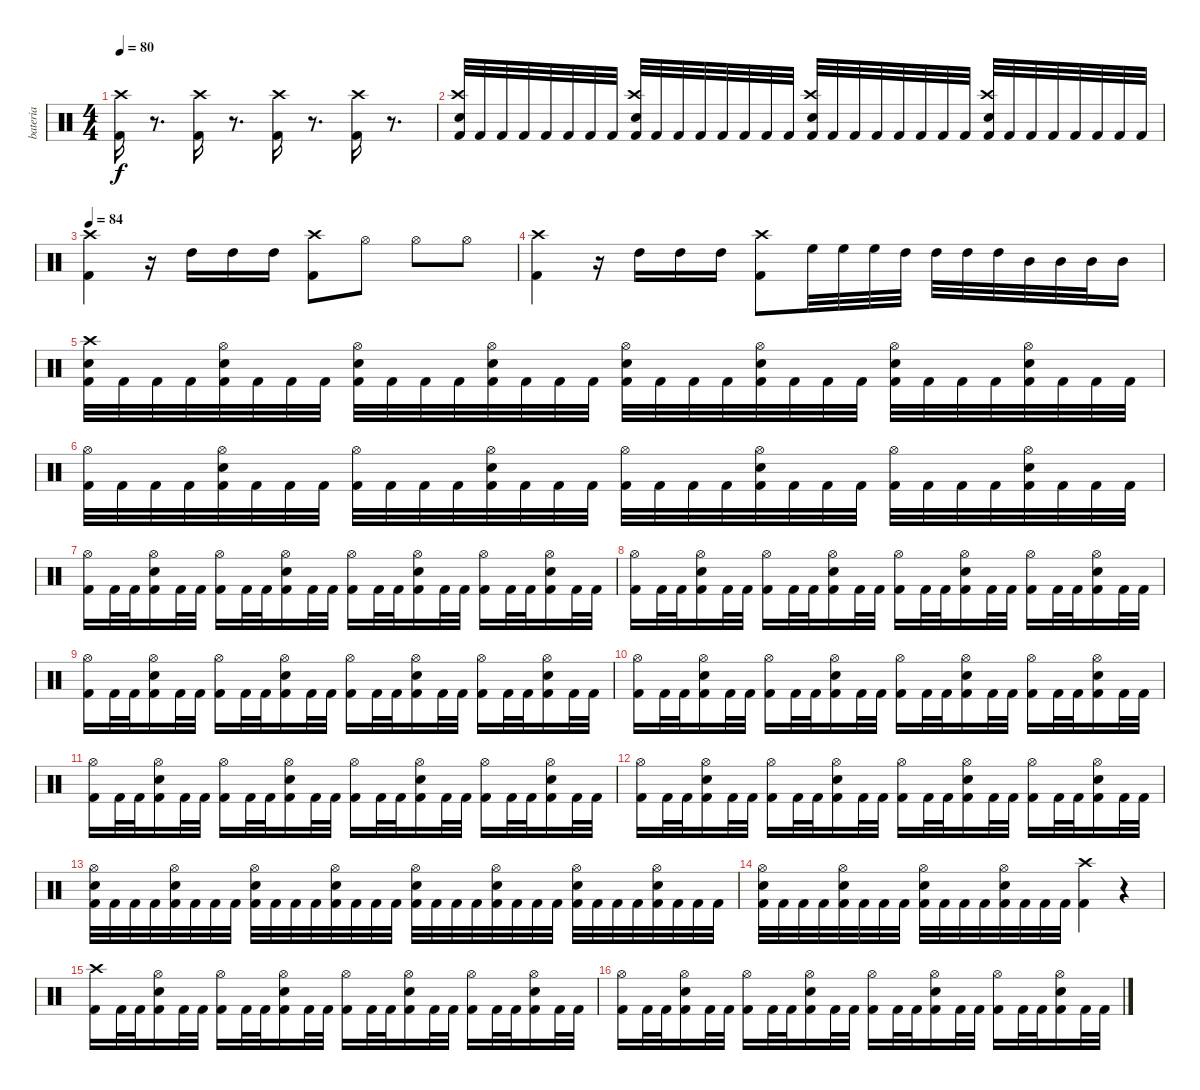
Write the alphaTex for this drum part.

\track ("bateria" "bateria") {instrument percussion}
\staff {score}
\articulation defaults
\ts (4 4)
\tempo 80
\clef neutral
\ks c
("Kick (hit) 2" "Crash high (hit)").16{dy f} r.8{d} ("Kick (hit) 2" "Crash high (hit)").16 r.8{d} ("Kick (hit) 2" "Crash high (hit)").16 r.8{d} ("Kick (hit) 2" "Crash high (hit)").16 r.8{d} |
("Kick (hit) 2" "Electric Snare (hit)" "Crash high (hit)").32 "Kick (hit) 2".32 "Kick (hit) 2".32 "Kick (hit) 2".32 "Kick (hit) 2".32 "Kick (hit) 2".32 "Kick (hit) 2".32 "Kick (hit) 2".32 ("Kick (hit) 2" "Electric Snare (hit)" "Crash high (hit)").32 "Kick (hit) 2".32 "Kick (hit) 2".32 "Kick (hit) 2".32 "Kick (hit) 2".32 "Kick (hit) 2".32 "Kick (hit) 2".32 "Kick (hit) 2".32 ("Kick (hit) 2" "Electric Snare (hit)" "Crash high (hit)").32 "Kick (hit) 2".32 "Kick (hit) 2".32 "Kick (hit) 2".32 "Kick (hit) 2".32 "Kick (hit) 2".32 "Kick (hit) 2".32 "Kick (hit) 2".32 ("Kick (hit) 2" "Electric Snare (hit)" "Crash high (hit)").32 "Kick (hit) 2".32 "Kick (hit) 2".32 "Kick (hit) 2".32 "Kick (hit) 2".32 "Kick (hit) 2".32 "Kick (hit) 2".32 "Kick (hit) 2".32 |
\tempo 84
("Kick (hit) 2" "Crash high (hit)").4 r.16 "High Tom (hit)".16 "High Tom (hit)".16 "High Tom (hit)".16 ("Kick (hit) 2" "Crash high (hit)").8 "Hi-Hat (open)".8 "Hi-Hat (open)".8 "Hi-Hat (open)".8 |
("Kick (hit) 2" "Crash high (hit)").4 r.16 "High Tom (hit)".16 "High Tom (hit)".16 "High Tom (hit)".16 ("Kick (hit) 2" "Crash high (hit)").8 "High Floor Tom (hit)".32 "High Floor Tom (hit)".32 "High Floor Tom (hit)".32 "High Tom (hit)".32 "High Tom (hit)".32 "High Tom (hit)".32 "High Tom (hit)".32 "Mid Tom (hit)".32 "Mid Tom (hit)".32 "Mid Tom (hit)".32 "Mid Tom (hit)".16 |
("Kick (hit) 2" "Electric Snare (hit)" "Crash high (hit)").32 "Kick (hit) 2".32 "Kick (hit) 2".32 "Kick (hit) 2".32 ("Kick (hit) 2" "Electric Snare (hit)" "Hi-Hat (open)").32 "Kick (hit) 2".32 "Kick (hit) 2".32 "Kick (hit) 2".32 ("Kick (hit) 2" "Electric Snare (hit)" "Hi-Hat (open)").32 "Kick (hit) 2".32 "Kick (hit) 2".32 "Kick (hit) 2".32 ("Kick (hit) 2" "Electric Snare (hit)" "Hi-Hat (open)").32 "Kick (hit) 2".32 "Kick (hit) 2".32 "Kick (hit) 2".32 ("Kick (hit) 2" "Electric Snare (hit)" "Hi-Hat (open)").32 "Kick (hit) 2".32 "Kick (hit) 2".32 "Kick (hit) 2".32 ("Kick (hit) 2" "Electric Snare (hit)" "Hi-Hat (open)").32 "Kick (hit) 2".32 "Kick (hit) 2".32 "Kick (hit) 2".32 ("Kick (hit) 2" "Electric Snare (hit)" "Hi-Hat (open)").32 "Kick (hit) 2".32 "Kick (hit) 2".32 "Kick (hit) 2".32 ("Kick (hit) 2" "Electric Snare (hit)" "Hi-Hat (open)").32 "Kick (hit) 2".32 "Kick (hit) 2".32 "Kick (hit) 2".32 |
("Kick (hit) 2" "Hi-Hat (open)").32 "Kick (hit) 2".32 "Kick (hit) 2".32 "Kick (hit) 2".32 ("Kick (hit) 2" "Electric Snare (hit)" "Hi-Hat (open)").32 "Kick (hit) 2".32 "Kick (hit) 2".32 "Kick (hit) 2".32 ("Kick (hit) 2" "Hi-Hat (open)").32 "Kick (hit) 2".32 "Kick (hit) 2".32 "Kick (hit) 2".32 ("Kick (hit) 2" "Electric Snare (hit)" "Hi-Hat (open)").32 "Kick (hit) 2".32 "Kick (hit) 2".32 "Kick (hit) 2".32 ("Kick (hit) 2" "Hi-Hat (open)").32 "Kick (hit) 2".32 "Kick (hit) 2".32 "Kick (hit) 2".32 ("Kick (hit) 2" "Electric Snare (hit)" "Hi-Hat (open)").32 "Kick (hit) 2".32 "Kick (hit) 2".32 "Kick (hit) 2".32 ("Kick (hit) 2" "Hi-Hat (open)").32 "Kick (hit) 2".32 "Kick (hit) 2".32 "Kick (hit) 2".32 ("Kick (hit) 2" "Electric Snare (hit)" "Hi-Hat (open)").32 "Kick (hit) 2".32 "Kick (hit) 2".32 "Kick (hit) 2".32 |
("Kick (hit) 2" "Hi-Hat (open)").16 "Kick (hit) 2".32 "Kick (hit) 2".32 ("Kick (hit) 2" "Electric Snare (hit)" "Hi-Hat (open)").16 "Kick (hit) 2".32 "Kick (hit) 2".32 ("Kick (hit) 2" "Hi-Hat (open)").16 "Kick (hit) 2".32 "Kick (hit) 2".32 ("Kick (hit) 2" "Electric Snare (hit)" "Hi-Hat (open)").16 "Kick (hit) 2".32 "Kick (hit) 2".32 ("Kick (hit) 2" "Hi-Hat (open)").16 "Kick (hit) 2".32 "Kick (hit) 2".32 ("Kick (hit) 2" "Electric Snare (hit)" "Hi-Hat (open)").16 "Kick (hit) 2".32 "Kick (hit) 2".32 ("Kick (hit) 2" "Hi-Hat (open)").16 "Kick (hit) 2".32 "Kick (hit) 2".32 ("Kick (hit) 2" "Electric Snare (hit)" "Hi-Hat (open)").16 "Kick (hit) 2".32 "Kick (hit) 2".32 |
("Kick (hit) 2" "Hi-Hat (open)").16 "Kick (hit) 2".32 "Kick (hit) 2".32 ("Kick (hit) 2" "Electric Snare (hit)" "Hi-Hat (open)").16 "Kick (hit) 2".32 "Kick (hit) 2".32 ("Kick (hit) 2" "Hi-Hat (open)").16 "Kick (hit) 2".32 "Kick (hit) 2".32 ("Kick (hit) 2" "Electric Snare (hit)" "Hi-Hat (open)").16 "Kick (hit) 2".32 "Kick (hit) 2".32 ("Kick (hit) 2" "Hi-Hat (open)").16 "Kick (hit) 2".32 "Kick (hit) 2".32 ("Kick (hit) 2" "Electric Snare (hit)" "Hi-Hat (open)").16 "Kick (hit) 2".32 "Kick (hit) 2".32 ("Kick (hit) 2" "Hi-Hat (open)").16 "Kick (hit) 2".32 "Kick (hit) 2".32 ("Kick (hit) 2" "Electric Snare (hit)" "Hi-Hat (open)").16 "Kick (hit) 2".32 "Kick (hit) 2".32 |
("Kick (hit) 2" "Hi-Hat (open)").16 "Kick (hit) 2".32 "Kick (hit) 2".32 ("Kick (hit) 2" "Electric Snare (hit)" "Hi-Hat (open)").16 "Kick (hit) 2".32 "Kick (hit) 2".32 ("Kick (hit) 2" "Hi-Hat (open)").16 "Kick (hit) 2".32 "Kick (hit) 2".32 ("Kick (hit) 2" "Electric Snare (hit)" "Hi-Hat (open)").16 "Kick (hit) 2".32 "Kick (hit) 2".32 ("Kick (hit) 2" "Hi-Hat (open)").16 "Kick (hit) 2".32 "Kick (hit) 2".32 ("Kick (hit) 2" "Electric Snare (hit)" "Hi-Hat (open)").16 "Kick (hit) 2".32 "Kick (hit) 2".32 ("Kick (hit) 2" "Hi-Hat (open)").16 "Kick (hit) 2".32 "Kick (hit) 2".32 ("Kick (hit) 2" "Electric Snare (hit)" "Hi-Hat (open)").16 "Kick (hit) 2".32 "Kick (hit) 2".32 |
("Kick (hit) 2" "Hi-Hat (open)").16 "Kick (hit) 2".32 "Kick (hit) 2".32 ("Kick (hit) 2" "Electric Snare (hit)" "Hi-Hat (open)").16 "Kick (hit) 2".32 "Kick (hit) 2".32 ("Kick (hit) 2" "Hi-Hat (open)").16 "Kick (hit) 2".32 "Kick (hit) 2".32 ("Kick (hit) 2" "Electric Snare (hit)" "Hi-Hat (open)").16 "Kick (hit) 2".32 "Kick (hit) 2".32 ("Kick (hit) 2" "Hi-Hat (open)").16 "Kick (hit) 2".32 "Kick (hit) 2".32 ("Kick (hit) 2" "Electric Snare (hit)" "Hi-Hat (open)").16 "Kick (hit) 2".32 "Kick (hit) 2".32 ("Kick (hit) 2" "Hi-Hat (open)").16 "Kick (hit) 2".32 "Kick (hit) 2".32 ("Kick (hit) 2" "Electric Snare (hit)" "Hi-Hat (open)").16 "Kick (hit) 2".32 "Kick (hit) 2".32 |
("Kick (hit) 2" "Hi-Hat (open)").16 "Kick (hit) 2".32 "Kick (hit) 2".32 ("Kick (hit) 2" "Electric Snare (hit)" "Hi-Hat (open)").16 "Kick (hit) 2".32 "Kick (hit) 2".32 ("Kick (hit) 2" "Hi-Hat (open)").16 "Kick (hit) 2".32 "Kick (hit) 2".32 ("Kick (hit) 2" "Electric Snare (hit)" "Hi-Hat (open)").16 "Kick (hit) 2".32 "Kick (hit) 2".32 ("Kick (hit) 2" "Hi-Hat (open)").16 "Kick (hit) 2".32 "Kick (hit) 2".32 ("Kick (hit) 2" "Electric Snare (hit)" "Hi-Hat (open)").16 "Kick (hit) 2".32 "Kick (hit) 2".32 ("Kick (hit) 2" "Hi-Hat (open)").16 "Kick (hit) 2".32 "Kick (hit) 2".32 ("Kick (hit) 2" "Electric Snare (hit)" "Hi-Hat (open)").16 "Kick (hit) 2".32 "Kick (hit) 2".32 |
("Kick (hit) 2" "Hi-Hat (open)").16 "Kick (hit) 2".32 "Kick (hit) 2".32 ("Kick (hit) 2" "Electric Snare (hit)" "Hi-Hat (open)").16 "Kick (hit) 2".32 "Kick (hit) 2".32 ("Kick (hit) 2" "Hi-Hat (open)").16 "Kick (hit) 2".32 "Kick (hit) 2".32 ("Kick (hit) 2" "Electric Snare (hit)" "Hi-Hat (open)").16 "Kick (hit) 2".32 "Kick (hit) 2".32 ("Kick (hit) 2" "Hi-Hat (open)").16 "Kick (hit) 2".32 "Kick (hit) 2".32 ("Kick (hit) 2" "Electric Snare (hit)" "Hi-Hat (open)").16 "Kick (hit) 2".32 "Kick (hit) 2".32 ("Kick (hit) 2" "Hi-Hat (open)").16 "Kick (hit) 2".32 "Kick (hit) 2".32 ("Kick (hit) 2" "Electric Snare (hit)" "Hi-Hat (open)").16 "Kick (hit) 2".32 "Kick (hit) 2".32 |
("Kick (hit) 2" "Electric Snare (hit)" "Hi-Hat (open)").32 "Kick (hit) 2".32 "Kick (hit) 2".32 "Kick (hit) 2".32 ("Kick (hit) 2" "Electric Snare (hit)" "Hi-Hat (open)").32 "Kick (hit) 2".32 "Kick (hit) 2".32 "Kick (hit) 2".32 ("Kick (hit) 2" "Electric Snare (hit)" "Hi-Hat (open)").32 "Kick (hit) 2".32 "Kick (hit) 2".32 "Kick (hit) 2".32 ("Kick (hit) 2" "Electric Snare (hit)" "Hi-Hat (open)").32 "Kick (hit) 2".32 "Kick (hit) 2".32 "Kick (hit) 2".32 ("Kick (hit) 2" "Electric Snare (hit)" "Hi-Hat (open)").32 "Kick (hit) 2".32 "Kick (hit) 2".32 "Kick (hit) 2".32 ("Kick (hit) 2" "Electric Snare (hit)" "Hi-Hat (open)").32 "Kick (hit) 2".32 "Kick (hit) 2".32 "Kick (hit) 2".32 ("Kick (hit) 2" "Electric Snare (hit)" "Hi-Hat (open)").32 "Kick (hit) 2".32 "Kick (hit) 2".32 "Kick (hit) 2".32 ("Kick (hit) 2" "Electric Snare (hit)" "Hi-Hat (open)").32 "Kick (hit) 2".32 "Kick (hit) 2".32 "Kick (hit) 2".32 |
("Kick (hit) 2" "Electric Snare (hit)" "Hi-Hat (open)").32 "Kick (hit) 2".32 "Kick (hit) 2".32 "Kick (hit) 2".32 ("Kick (hit) 2" "Electric Snare (hit)" "Hi-Hat (open)").32 "Kick (hit) 2".32 "Kick (hit) 2".32 "Kick (hit) 2".32 ("Kick (hit) 2" "Electric Snare (hit)" "Hi-Hat (open)").32 "Kick (hit) 2".32 "Kick (hit) 2".32 "Kick (hit) 2".32 ("Kick (hit) 2" "Electric Snare (hit)" "Hi-Hat (open)").32 "Kick (hit) 2".32 "Kick (hit) 2".32 "Kick (hit) 2".32 ("Kick (hit) 2" "Crash high (hit)").4 r.4 |
("Kick (hit) 2" "Crash high (hit)").16 "Kick (hit) 2".32 "Kick (hit) 2".32 ("Kick (hit) 2" "Electric Snare (hit)" "Hi-Hat (open)").16 "Kick (hit) 2".32 "Kick (hit) 2".32 ("Kick (hit) 2" "Hi-Hat (open)").16 "Kick (hit) 2".32 "Kick (hit) 2".32 ("Kick (hit) 2" "Electric Snare (hit)" "Hi-Hat (open)").16 "Kick (hit) 2".32 "Kick (hit) 2".32 ("Kick (hit) 2" "Hi-Hat (open)").16 "Kick (hit) 2".32 "Kick (hit) 2".32 ("Kick (hit) 2" "Electric Snare (hit)" "Hi-Hat (open)").16 "Kick (hit) 2".32 "Kick (hit) 2".32 ("Kick (hit) 2" "Hi-Hat (open)").16 "Kick (hit) 2".32 "Kick (hit) 2".32 ("Kick (hit) 2" "Electric Snare (hit)" "Hi-Hat (open)").16 "Kick (hit) 2".32 "Kick (hit) 2".32 |
("Kick (hit) 2" "Hi-Hat (open)").16 "Kick (hit) 2".32 "Kick (hit) 2".32 ("Kick (hit) 2" "Electric Snare (hit)" "Hi-Hat (open)").16 "Kick (hit) 2".32 "Kick (hit) 2".32 ("Kick (hit) 2" "Hi-Hat (open)").16 "Kick (hit) 2".32 "Kick (hit) 2".32 ("Kick (hit) 2" "Electric Snare (hit)" "Hi-Hat (open)").16 "Kick (hit) 2".32 "Kick (hit) 2".32 ("Kick (hit) 2" "Hi-Hat (open)").16 "Kick (hit) 2".32 "Kick (hit) 2".32 ("Kick (hit) 2" "Electric Snare (hit)" "Hi-Hat (open)").16 "Kick (hit) 2".32 "Kick (hit) 2".32 ("Kick (hit) 2" "Hi-Hat (open)").16 "Kick (hit) 2".32 "Kick (hit) 2".32 ("Kick (hit) 2" "Electric Snare (hit)" "Hi-Hat (open)").16 "Kick (hit) 2".32 "Kick (hit) 2".32
